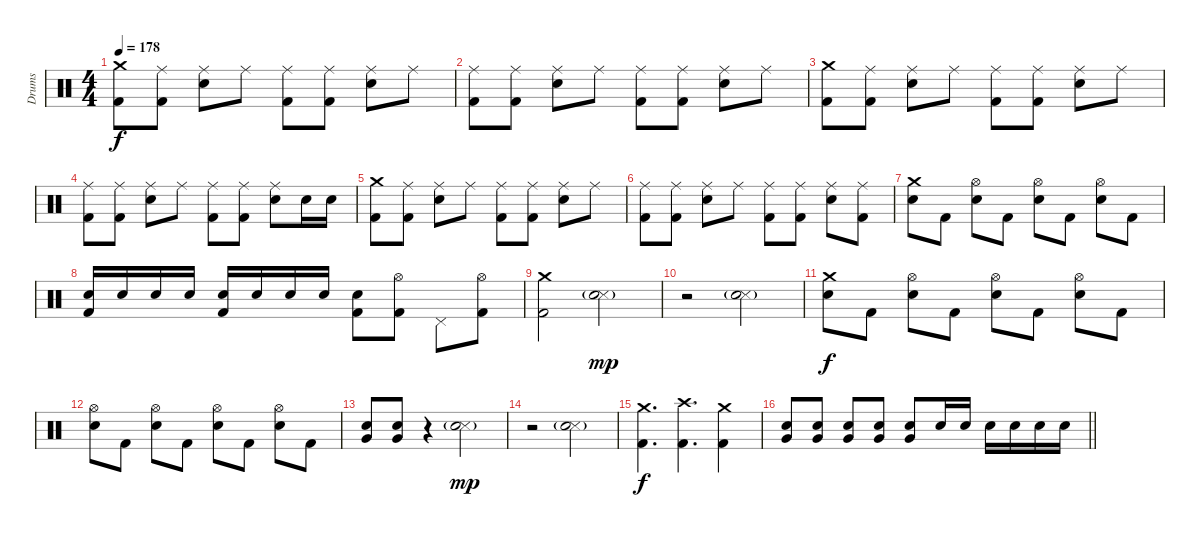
\track ("Drums" "Drums") {instrument percussion}
\staff {score}
\articulation defaults
\ts (4 4)
\tempo 178
\clef neutral
\ks c
("Crash medium (hit)" "Kick (hit) 2").8{dy f} ("Ride (middle)" "Kick (hit) 2").8 ("Ride (middle)" "Electric Snare (hit)").8 "Ride (middle)".8 ("Ride (middle)" "Kick (hit) 2").8 ("Ride (middle)" "Kick (hit) 2").8 ("Ride (middle)" "Electric Snare (hit)").8 "Ride (middle)".8 |
("Ride (middle)" "Kick (hit) 2").8 ("Ride (middle)" "Kick (hit) 2").8 ("Ride (middle)" "Electric Snare (hit)").8 "Ride (middle)".8 ("Ride (middle)" "Kick (hit) 2").8 ("Ride (middle)" "Kick (hit) 2").8 ("Ride (middle)" "Electric Snare (hit)").8 "Ride (middle)".8 |
("Crash medium (hit)" "Kick (hit) 2").8 ("Ride (middle)" "Kick (hit) 2").8 ("Ride (middle)" "Electric Snare (hit)").8 "Ride (middle)".8 ("Ride (middle)" "Kick (hit) 2").8 ("Ride (middle)" "Kick (hit) 2").8 ("Ride (middle)" "Electric Snare (hit)").8 "Ride (middle)".8 |
("Ride (middle)" "Kick (hit) 2").8 ("Ride (middle)" "Kick (hit) 2").8 ("Ride (middle)" "Electric Snare (hit)").8 "Ride (middle)".8 ("Ride (middle)" "Kick (hit) 2").8 ("Ride (middle)" "Kick (hit) 2").8 ("Ride (middle)" "Electric Snare (hit)").8 "Electric Snare (hit)".16 "Electric Snare (hit)".16 |
("Crash medium (hit)" "Kick (hit) 2").8 ("Ride (middle)" "Kick (hit) 2").8 ("Ride (middle)" "Electric Snare (hit)").8 "Ride (middle)".8 ("Ride (middle)" "Kick (hit) 2").8 ("Ride (middle)" "Kick (hit) 2").8 ("Ride (middle)" "Electric Snare (hit)").8 "Ride (middle)".8 |
("Ride (middle)" "Kick (hit) 2").8 ("Ride (middle)" "Kick (hit) 2").8 ("Ride (middle)" "Electric Snare (hit)").8 "Ride (middle)".8 ("Ride (middle)" "Kick (hit) 2").8 ("Ride (middle)" "Kick (hit) 2").8 ("Ride (middle)" "Electric Snare (hit)").8 ("Ride (middle)" "Kick (hit) 2").8 |
("Crash medium (hit)" "Electric Snare (hit)").8 "Kick (hit) 2".8 ("Hi-Hat (open)" "Electric Snare (hit)").8 "Kick (hit) 2".8 ("Hi-Hat (open)" "Electric Snare (hit)").8 "Kick (hit) 2".8 ("Hi-Hat (open)" "Electric Snare (hit)").8 "Kick (hit) 2".8 |
("Electric Snare (hit)" "Kick (hit) 2").16 "Electric Snare (hit)".16 "Electric Snare (hit)".16 "Electric Snare (hit)".16 ("Electric Snare (hit)" "Kick (hit) 2").16 "Electric Snare (hit)".16 "Electric Snare (hit)".16 "Electric Snare (hit)".16 ("Electric Snare (hit)" "Kick (hit) 2").8 ("Hi-Hat (open)" "Kick (hit) 2").8 "Pedal Hi-Hat (hit)".8 ("Hi-Hat (open)" "Kick (hit) 2").8 |
("Crash medium (hit)" "Kick (hit) 2").2 ("Snare (side stick) 3"{g} "Electric Snare (hit)"{g}).2{dy mp} |
r.2 ("Snare (side stick) 3"{g} "Electric Snare (hit)"{g}).2 |
("Crash medium (hit)" "Electric Snare (hit)").8{dy f} "Kick (hit) 2".8 ("Hi-Hat (open)" "Electric Snare (hit)").8 "Kick (hit) 2".8 ("Hi-Hat (open)" "Electric Snare (hit)").8 "Kick (hit) 2".8 ("Hi-Hat (open)" "Electric Snare (hit)").8 "Kick (hit) 2".8 |
("Hi-Hat (open)" "Electric Snare (hit)").8 "Kick (hit) 2".8 ("Hi-Hat (open)" "Electric Snare (hit)").8 "Kick (hit) 2".8 ("Hi-Hat (open)" "Electric Snare (hit)").8 "Kick (hit) 2".8 ("Hi-Hat (open)" "Electric Snare (hit)").8 "Kick (hit) 2".8 |
("Very Low Tom (hit)" "Electric Snare (hit)").8 ("Very Low Tom (hit)" "Electric Snare (hit)").8 r.4 ("Snare (side stick) 3"{g} "Electric Snare (hit)"{g}).2{dy mp} |
r.2 ("Snare (side stick) 3"{g} "Electric Snare (hit)"{g}).2 |
("Crash medium (hit)" "Kick (hit) 2").4{d dy f} ("Crash high (hit)" "Kick (hit) 2").4{d} ("Crash medium (hit)" "Kick (hit) 2").4 |
\barLineRight lightlight
("Very Low Tom (hit)" "Electric Snare (hit)").8 ("Very Low Tom (hit)" "Electric Snare (hit)").8 ("Very Low Tom (hit)" "Electric Snare (hit)").8 ("Very Low Tom (hit)" "Electric Snare (hit)").8 ("Very Low Tom (hit)" "Electric Snare (hit)").8 "Electric Snare (hit)".16 "Electric Snare (hit)".16 "Electric Snare (hit)".16 "Electric Snare (hit)".16 "Electric Snare (hit)".16 "Electric Snare (hit)".16
